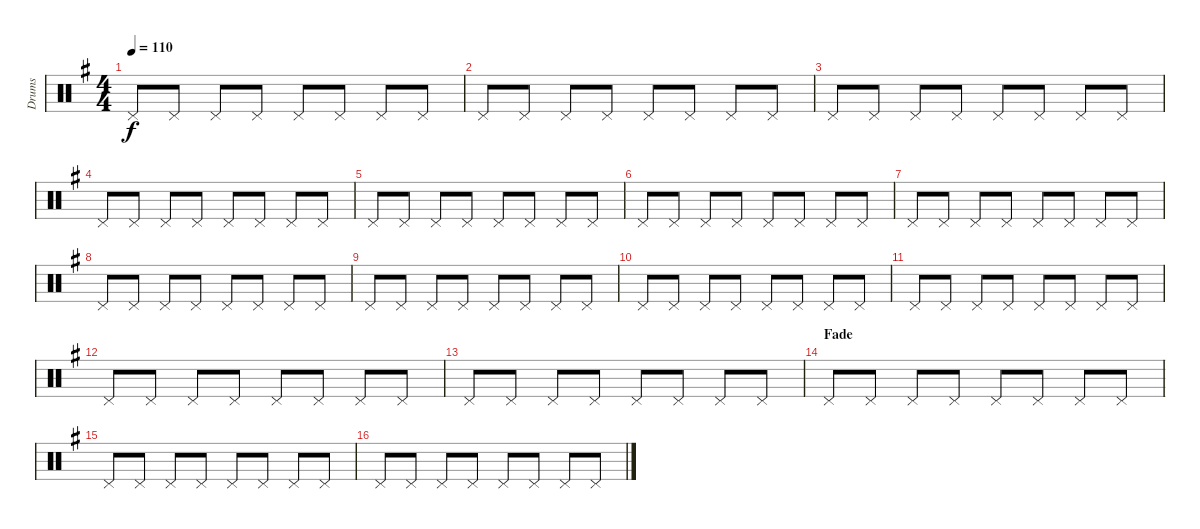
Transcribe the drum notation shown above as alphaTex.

\track ("Drums" "Drums") {instrument percussion}
\staff {score}
\articulation defaults
\ts (4 4)
\tempo 110
\clef neutral
\ks g "Pedal Hi-Hat (hit)".8{dy f} "Pedal Hi-Hat (hit)".8 "Pedal Hi-Hat (hit)".8 "Pedal Hi-Hat (hit)".8 "Pedal Hi-Hat (hit)".8 "Pedal Hi-Hat (hit)".8 "Pedal Hi-Hat (hit)".8 "Pedal Hi-Hat (hit)".8
|
"Pedal Hi-Hat (hit)".8 "Pedal Hi-Hat (hit)".8 "Pedal Hi-Hat (hit)".8 "Pedal Hi-Hat (hit)".8 "Pedal Hi-Hat (hit)".8 "Pedal Hi-Hat (hit)".8 "Pedal Hi-Hat (hit)".8 "Pedal Hi-Hat (hit)".8 |
"Pedal Hi-Hat (hit)".8 "Pedal Hi-Hat (hit)".8 "Pedal Hi-Hat (hit)".8 "Pedal Hi-Hat (hit)".8 "Pedal Hi-Hat (hit)".8 "Pedal Hi-Hat (hit)".8 "Pedal Hi-Hat (hit)".8 "Pedal Hi-Hat (hit)".8 |
"Pedal Hi-Hat (hit)".8 "Pedal Hi-Hat (hit)".8 "Pedal Hi-Hat (hit)".8 "Pedal Hi-Hat (hit)".8 "Pedal Hi-Hat (hit)".8 "Pedal Hi-Hat (hit)".8 "Pedal Hi-Hat (hit)".8 "Pedal Hi-Hat (hit)".8 |
"Pedal Hi-Hat (hit)".8 "Pedal Hi-Hat (hit)".8 "Pedal Hi-Hat (hit)".8 "Pedal Hi-Hat (hit)".8 "Pedal Hi-Hat (hit)".8 "Pedal Hi-Hat (hit)".8 "Pedal Hi-Hat (hit)".8 "Pedal Hi-Hat (hit)".8 |
"Pedal Hi-Hat (hit)".8 "Pedal Hi-Hat (hit)".8 "Pedal Hi-Hat (hit)".8 "Pedal Hi-Hat (hit)".8 "Pedal Hi-Hat (hit)".8 "Pedal Hi-Hat (hit)".8 "Pedal Hi-Hat (hit)".8 "Pedal Hi-Hat (hit)".8 |
"Pedal Hi-Hat (hit)".8 "Pedal Hi-Hat (hit)".8 "Pedal Hi-Hat (hit)".8 "Pedal Hi-Hat (hit)".8 "Pedal Hi-Hat (hit)".8 "Pedal Hi-Hat (hit)".8 "Pedal Hi-Hat (hit)".8 "Pedal Hi-Hat (hit)".8 |
"Pedal Hi-Hat (hit)".8 "Pedal Hi-Hat (hit)".8 "Pedal Hi-Hat (hit)".8 "Pedal Hi-Hat (hit)".8 "Pedal Hi-Hat (hit)".8 "Pedal Hi-Hat (hit)".8 "Pedal Hi-Hat (hit)".8 "Pedal Hi-Hat (hit)".8 |
"Pedal Hi-Hat (hit)".8 "Pedal Hi-Hat (hit)".8 "Pedal Hi-Hat (hit)".8 "Pedal Hi-Hat (hit)".8 "Pedal Hi-Hat (hit)".8 "Pedal Hi-Hat (hit)".8 "Pedal Hi-Hat (hit)".8 "Pedal Hi-Hat (hit)".8 |
"Pedal Hi-Hat (hit)".8 "Pedal Hi-Hat (hit)".8 "Pedal Hi-Hat (hit)".8 "Pedal Hi-Hat (hit)".8 "Pedal Hi-Hat (hit)".8 "Pedal Hi-Hat (hit)".8 "Pedal Hi-Hat (hit)".8 "Pedal Hi-Hat (hit)".8 |
"Pedal Hi-Hat (hit)".8 "Pedal Hi-Hat (hit)".8 "Pedal Hi-Hat (hit)".8 "Pedal Hi-Hat (hit)".8 "Pedal Hi-Hat (hit)".8 "Pedal Hi-Hat (hit)".8 "Pedal Hi-Hat (hit)".8 "Pedal Hi-Hat (hit)".8 |
"Pedal Hi-Hat (hit)".8 "Pedal Hi-Hat (hit)".8 "Pedal Hi-Hat (hit)".8 "Pedal Hi-Hat (hit)".8 "Pedal Hi-Hat (hit)".8 "Pedal Hi-Hat (hit)".8 "Pedal Hi-Hat (hit)".8 "Pedal Hi-Hat (hit)".8 |
"Pedal Hi-Hat (hit)".8 "Pedal Hi-Hat (hit)".8 "Pedal Hi-Hat (hit)".8 "Pedal Hi-Hat (hit)".8 "Pedal Hi-Hat (hit)".8 "Pedal Hi-Hat (hit)".8 "Pedal Hi-Hat (hit)".8 "Pedal Hi-Hat (hit)".8 |
\section ("" "Fade")
"Pedal Hi-Hat (hit)".8 "Pedal Hi-Hat (hit)".8 "Pedal Hi-Hat (hit)".8 "Pedal Hi-Hat (hit)".8 "Pedal Hi-Hat (hit)".8 "Pedal Hi-Hat (hit)".8 "Pedal Hi-Hat (hit)".8 "Pedal Hi-Hat (hit)".8 |
"Pedal Hi-Hat (hit)".8 "Pedal Hi-Hat (hit)".8 "Pedal Hi-Hat (hit)".8 "Pedal Hi-Hat (hit)".8 "Pedal Hi-Hat (hit)".8 "Pedal Hi-Hat (hit)".8 "Pedal Hi-Hat (hit)".8 "Pedal Hi-Hat (hit)".8 |
"Pedal Hi-Hat (hit)".8 "Pedal Hi-Hat (hit)".8 "Pedal Hi-Hat (hit)".8 "Pedal Hi-Hat (hit)".8 "Pedal Hi-Hat (hit)".8 "Pedal Hi-Hat (hit)".8 "Pedal Hi-Hat (hit)".8 "Pedal Hi-Hat (hit)".8
